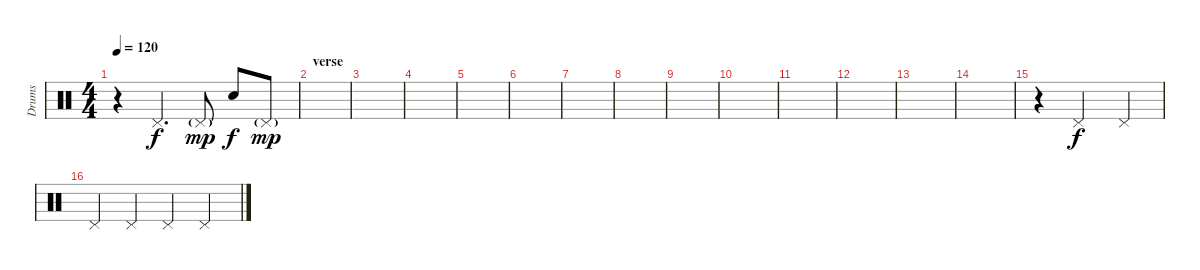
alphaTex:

\track ("Drums" "Drums") {instrument percussion}
\staff {score}
\articulation defaults
\ts (4 4)
\tempo 120
\clef neutral
\ks c
r.4{dy mp} "Pedal Hi-Hat (hit)".4{d dy f} "Pedal Hi-Hat (hit)"{g}.8{dy mp} "Electric Snare (hit)".8{dy f} "Pedal Hi-Hat (hit)"{g}.8{dy mp} |
\section ("" "verse")
|
|
|
|
|
|
|
|
|
|
|
|
|
r.4 "Pedal Hi-Hat (hit)".2{dy f} "Pedal Hi-Hat (hit)".4 |
"Pedal Hi-Hat (hit)".4 "Pedal Hi-Hat (hit)".4 "Pedal Hi-Hat (hit)".4 "Pedal Hi-Hat (hit)".4
